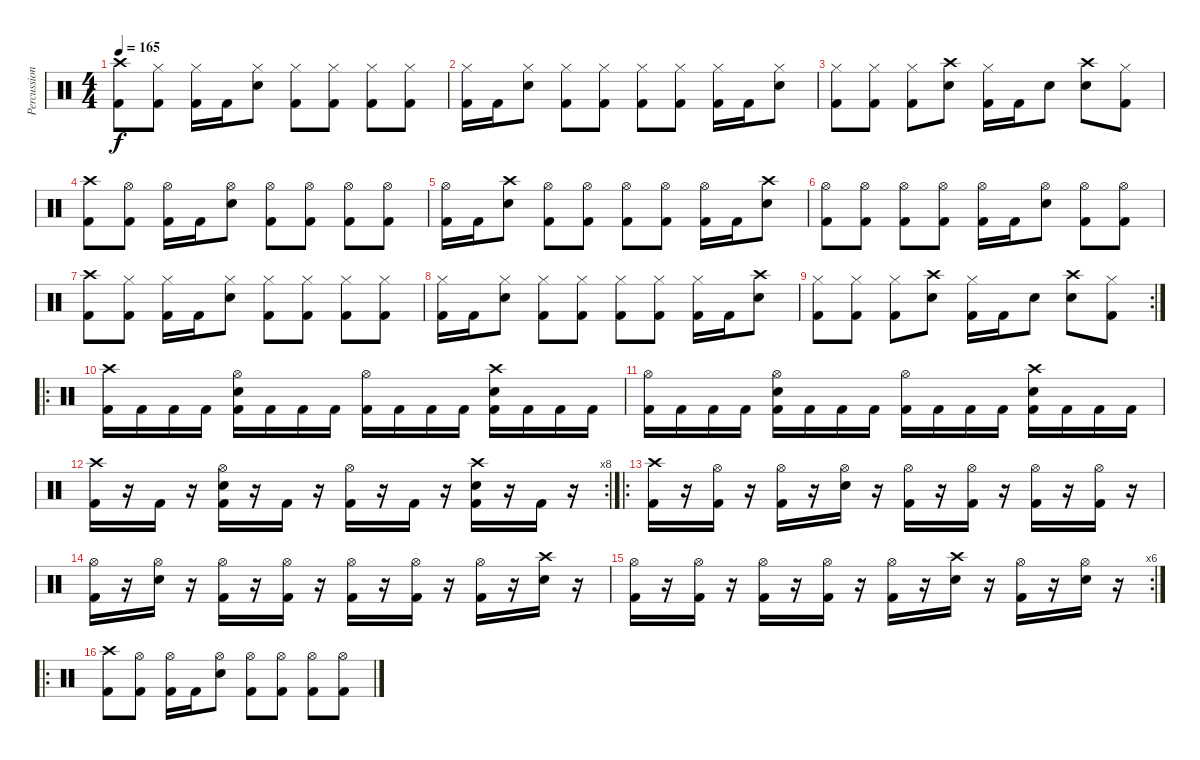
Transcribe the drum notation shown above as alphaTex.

\track ("Percussion" "Percussion") {instrument percussion}
\staff {score}
\articulation defaults
\ts (4 4)
\tempo 165
\clef neutral
\ks c
("Crash high (hit)" "Kick (hit) 2").8{dy f} ("Hi-Hat (closed)" "Kick (hit) 2").8 ("Hi-Hat (closed)" "Kick (hit) 2").16 "Kick (hit) 2".16 ("Hi-Hat (closed)" "Snare (hit) 2").8 ("Hi-Hat (closed)" "Kick (hit) 2").8 ("Hi-Hat (closed)" "Kick (hit) 2").8 ("Hi-Hat (closed)" "Kick (hit) 2").8 ("Hi-Hat (closed)" "Kick (hit) 2").8 |
("Hi-Hat (closed)" "Kick (hit) 2").16 "Kick (hit) 2".16 ("Hi-Hat (closed)" "Snare (hit) 2").8 ("Hi-Hat (closed)" "Kick (hit) 2").8 ("Hi-Hat (closed)" "Kick (hit) 2").8 ("Hi-Hat (closed)" "Kick (hit) 2").8 ("Hi-Hat (closed)" "Kick (hit) 2").8 ("Hi-Hat (closed)" "Kick (hit) 2").16 "Kick (hit) 2".16 ("Hi-Hat (closed)" "Snare (hit) 2").8 |
("Hi-Hat (closed)" "Kick (hit) 2").8 ("Hi-Hat (closed)" "Kick (hit) 2").8 ("Hi-Hat (closed)" "Kick (hit) 2").8 ("Crash high (hit)" "Snare (hit) 2").8 ("Hi-Hat (closed)" "Kick (hit) 2").16 "Kick (hit) 2".16 "Snare (hit) 2".8 ("Crash high (hit)" "Snare (hit) 2").8 ("Hi-Hat (closed)" "Kick (hit) 2").8 |
("Crash high (hit)" "Kick (hit) 2").8 ("Hi-Hat (open)" "Kick (hit) 2").8 ("Hi-Hat (open)" "Kick (hit) 2").16 "Kick (hit) 2".16 ("Hi-Hat (open)" "Snare (hit) 2").8 ("Hi-Hat (open)" "Kick (hit) 2").8 ("Hi-Hat (open)" "Kick (hit) 2").8 ("Hi-Hat (open)" "Kick (hit) 2").8 ("Hi-Hat (open)" "Kick (hit) 2").8 |
("Hi-Hat (open)" "Kick (hit) 2").16 "Kick (hit) 2".16 ("Crash high (hit)" "Snare (hit) 2").8 ("Hi-Hat (open)" "Kick (hit) 2").8 ("Hi-Hat (open)" "Kick (hit) 2").8 ("Hi-Hat (open)" "Kick (hit) 2").8 ("Hi-Hat (open)" "Kick (hit) 2").8 ("Hi-Hat (open)" "Kick (hit) 2").16 "Kick (hit) 2".16 ("Crash high (hit)" "Snare (hit) 2").8 |
("Hi-Hat (open)" "Kick (hit) 2").8 ("Hi-Hat (open)" "Kick (hit) 2").8 ("Hi-Hat (open)" "Kick (hit) 2").8 ("Hi-Hat (open)" "Kick (hit) 2").8 ("Hi-Hat (open)" "Kick (hit) 2").16 "Kick (hit) 2".16 ("Hi-Hat (open)" "Snare (hit) 2").8 ("Hi-Hat (open)" "Kick (hit) 2").8 ("Hi-Hat (open)" "Kick (hit) 2").8 |
("Crash high (hit)" "Kick (hit) 2").8 ("Hi-Hat (closed)" "Kick (hit) 2").8 ("Hi-Hat (closed)" "Kick (hit) 2").16 "Kick (hit) 2".16 ("Hi-Hat (closed)" "Snare (hit) 2").8 ("Hi-Hat (closed)" "Kick (hit) 2").8 ("Hi-Hat (closed)" "Kick (hit) 2").8 ("Hi-Hat (closed)" "Kick (hit) 2").8 ("Hi-Hat (closed)" "Kick (hit) 2").8 |
("Hi-Hat (closed)" "Kick (hit) 2").16 "Kick (hit) 2".16 ("Hi-Hat (closed)" "Snare (hit) 2").8 ("Hi-Hat (closed)" "Kick (hit) 2").8 ("Hi-Hat (closed)" "Kick (hit) 2").8 ("Hi-Hat (closed)" "Kick (hit) 2").8 ("Hi-Hat (closed)" "Kick (hit) 2").8 ("Hi-Hat (closed)" "Kick (hit) 2").16 "Kick (hit) 2".16 ("Crash high (hit)" "Snare (hit) 2").8 |
\rc 2
("Hi-Hat (closed)" "Kick (hit) 2").8 ("Hi-Hat (closed)" "Kick (hit) 2").8 ("Hi-Hat (closed)" "Kick (hit) 2").8 ("Crash high (hit)" "Snare (hit) 2").8 ("Hi-Hat (closed)" "Kick (hit) 2").16 "Kick (hit) 2".16 "Snare (hit) 2".8 ("Crash high (hit)" "Snare (hit) 2").8 ("Hi-Hat (closed)" "Kick (hit) 2").8 |
\ro
("Crash high (hit)" "Kick (hit) 2").16 "Kick (hit) 2".16 "Kick (hit) 2".16 "Kick (hit) 2".16 ("Hi-Hat (open)" "Snare (hit) 2" "Kick (hit) 2").16 "Kick (hit) 2".16 "Kick (hit) 2".16 "Kick (hit) 2".16 ("Hi-Hat (open)" "Kick (hit) 2").16 "Kick (hit) 2".16 "Kick (hit) 2".16 "Kick (hit) 2".16 ("Crash high (hit)" "Snare (hit) 2" "Kick (hit) 2").16 "Kick (hit) 2".16 "Kick (hit) 2".16 "Kick (hit) 2".16 |
("Hi-Hat (open)" "Kick (hit) 2").16 "Kick (hit) 2".16 "Kick (hit) 2".16 "Kick (hit) 2".16 ("Hi-Hat (open)" "Snare (hit) 2" "Kick (hit) 2").16 "Kick (hit) 2".16 "Kick (hit) 2".16 "Kick (hit) 2".16 ("Hi-Hat (open)" "Kick (hit) 2").16 "Kick (hit) 2".16 "Kick (hit) 2".16 "Kick (hit) 2".16 ("Crash high (hit)" "Snare (hit) 2" "Kick (hit) 2").16 "Kick (hit) 2".16 "Kick (hit) 2".16 "Kick (hit) 2".16 |
\rc 8
("Crash high (hit)" "Kick (hit) 2").16 r.16 "Kick (hit) 2".16 r.16 ("Hi-Hat (open)" "Snare (hit) 2" "Kick (hit) 2").16 r.16 "Kick (hit) 2".16 r.16 ("Hi-Hat (open)" "Kick (hit) 2").16 r.16 "Kick (hit) 2".16 r.16 ("Crash high (hit)" "Snare (hit) 2" "Kick (hit) 2").16 r.16 "Kick (hit) 2".16 r.16 |
\ro
("Crash high (hit)" "Kick (hit) 2").16 r.16 ("Hi-Hat (open)" "Kick (hit) 2").16 r.16 ("Hi-Hat (open)" "Kick (hit) 2").16 r.16 ("Hi-Hat (open)" "Snare (hit) 2").16 r.16 ("Hi-Hat (open)" "Kick (hit) 2").16 r.16 ("Hi-Hat (open)" "Kick (hit) 2").16 r.16 ("Hi-Hat (open)" "Kick (hit) 2").16 r.16 ("Hi-Hat (open)" "Kick (hit) 2").16 r.16 |
("Hi-Hat (open)" "Kick (hit) 2").16 r.16 ("Hi-Hat (open)" "Snare (hit) 2").16 r.16 ("Hi-Hat (open)" "Kick (hit) 2").16 r.16 ("Hi-Hat (open)" "Kick (hit) 2").16 r.16 ("Hi-Hat (open)" "Kick (hit) 2").16 r.16 ("Hi-Hat (open)" "Kick (hit) 2").16 r.16 ("Hi-Hat (open)" "Kick (hit) 2").16 r.16 ("Crash high (hit)" "Snare (hit) 2").16 r.16 |
\rc 6
("Hi-Hat (open)" "Kick (hit) 2").16 r.16 ("Hi-Hat (open)" "Kick (hit) 2").16 r.16 ("Hi-Hat (open)" "Kick (hit) 2").16 r.16 ("Hi-Hat (open)" "Kick (hit) 2").16 r.16 ("Hi-Hat (open)" "Kick (hit) 2").16 r.16 ("Crash high (hit)" "Snare (hit) 2").16 r.16 ("Hi-Hat (open)" "Kick (hit) 2").16 r.16 ("Hi-Hat (open)" "Snare (hit) 2").16 r.16 |
\ro
("Crash high (hit)" "Kick (hit) 2").8 ("Hi-Hat (open)" "Kick (hit) 2").8 ("Hi-Hat (open)" "Kick (hit) 2").16 "Kick (hit) 2".16 ("Hi-Hat (open)" "Snare (hit) 2").8 ("Hi-Hat (open)" "Kick (hit) 2").8 ("Hi-Hat (open)" "Kick (hit) 2").8 ("Hi-Hat (open)" "Kick (hit) 2").8 ("Hi-Hat (open)" "Kick (hit) 2").8
